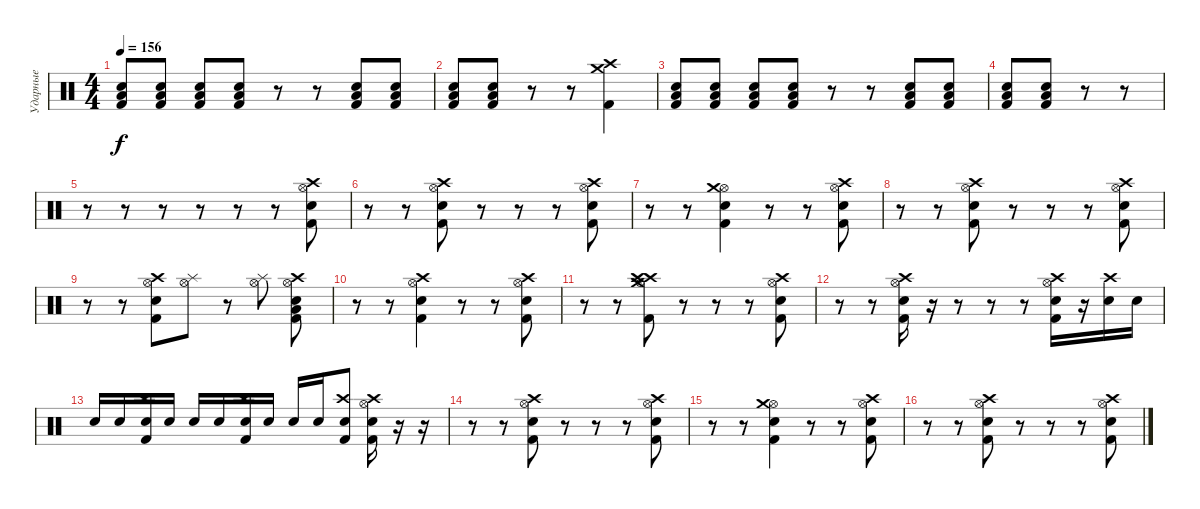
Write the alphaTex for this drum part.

\track ("Ударные" "Ударные") {instrument percussion}
\staff {score}
\articulation defaults
\ts (4 4)
\tempo 156
\clef neutral
\ks c
("Kick (hit) 2" "Electric Snare (hit)" "Low Tom (hit)").8{dy f} ("Kick (hit) 2" "Electric Snare (hit)" "Low Tom (hit)").8 ("Kick (hit) 2" "Electric Snare (hit)" "Low Tom (hit)").8 ("Kick (hit) 2" "Electric Snare (hit)" "Low Tom (hit)").8 r.8 r.8 ("Kick (hit) 2" "Electric Snare (hit)" "Low Tom (hit)").8 ("Kick (hit) 2" "Electric Snare (hit)" "Low Tom (hit)").8 |
("Kick (hit) 2" "Electric Snare (hit)" "Low Tom (hit)").8 ("Kick (hit) 2" "Electric Snare (hit)" "Low Tom (hit)").8 r.8 r.8 ("Kick (hit) 2" "Crash medium (hit)" "Crash high (hit)").4 |
("Kick (hit) 2" "Electric Snare (hit)" "Low Tom (hit)").8 ("Kick (hit) 2" "Electric Snare (hit)" "Low Tom (hit)").8 ("Kick (hit) 2" "Electric Snare (hit)" "Low Tom (hit)").8 ("Kick (hit) 2" "Electric Snare (hit)" "Low Tom (hit)").8 r.8 r.8 ("Kick (hit) 2" "Electric Snare (hit)" "Low Tom (hit)").8 ("Kick (hit) 2" "Electric Snare (hit)" "Low Tom (hit)").8 |
("Kick (hit) 2" "Electric Snare (hit)" "Low Tom (hit)").8 ("Kick (hit) 2" "Electric Snare (hit)" "Low Tom (hit)").8 r.8 r.8 |
r.8 r.8 r.8 r.8 r.8 r.8 ("Kick (hit) 2" "Electric Snare (hit)" "Hi-Hat (open)" "Crash high (hit)").8 |
r.8 r.8 ("Kick (hit) 2" "Electric Snare (hit)" "Hi-Hat (open)" "Crash high (hit)").8 r.8 r.8 r.8 ("Kick (hit) 2" "Electric Snare (hit)" "Hi-Hat (open)" "Crash high (hit)").8 |
r.8 r.8 ("Kick (hit) 2" "Electric Snare (hit)" "Hi-Hat (open)" "Crash medium (hit)").4 r.8 r.8 ("Kick (hit) 2" "Electric Snare (hit)" "Hi-Hat (open)" "Crash high (hit)").8 |
r.8 r.8 ("Kick (hit) 2" "Electric Snare (hit)" "Hi-Hat (open)" "Crash high (hit)").8 r.8 r.8 r.8 ("Kick (hit) 2" "Electric Snare (hit)" "Hi-Hat (open)" "Crash high (hit)").8 |
r.8 r.8 ("Kick (hit) 2" "Electric Snare (hit)" "Hi-Hat (open)" "Crash high (hit)").8 ("Splash (hit)" "Hi-Hat (open)").8 r.8 ("Splash (hit)" "Hi-Hat (open)").8 ("Kick (hit) 2" "Electric Snare (hit)" "Low Tom (hit)" "Hi-Hat (open)" "Crash high (hit)").8 |
r.8 r.8 ("Kick (hit) 2" "Electric Snare (hit)" "Hi-Hat (open)" "Crash high (hit)").4 r.8 r.8 ("Kick (hit) 2" "Electric Snare (hit)" "Hi-Hat (open)" "Crash high (hit)").8 |
r.8 r.8 ("Kick (hit) 2" "Crash medium (hit)" "Crash high (hit)" "Hi-Hat (open)" "Crash high (hit)").8 r.8 r.8 r.8 ("Kick (hit) 2" "Electric Snare (hit)" "Hi-Hat (open)" "Crash high (hit)").8 |
r.8 r.8 ("Kick (hit) 2" "Electric Snare (hit)" "Hi-Hat (open)" "Crash high (hit)").16 r.16 r.8 r.8 r.8 ("Kick (hit) 2" "Electric Snare (hit)" "Hi-Hat (open)" "Crash high (hit)").16 r.16 ("Snare (hit) 2" "Crash high (hit)").16 "Electric Snare (hit)".16 |
"Snare (hit) 2".16 "Electric Snare (hit)".16 ("Kick (hit) 2" "Snare (hit) 2" "Crash high (hit)").16 "Electric Snare (hit)".16 "Snare (hit) 2".16 "Electric Snare (hit)".16 ("Kick (hit) 2" "Snare (hit) 2" "Crash high (hit)").16 "Electric Snare (hit)".16 "Snare (hit) 2".16 "Electric Snare (hit)".16 ("Kick (hit) 2" "Snare (hit) 2" "Crash high (hit)").8 ("Kick (hit) 2" "Electric Snare (hit)" "Hi-Hat (open)" "Crash high (hit)").16 r.16 r.16 |
r.8 r.8 ("Kick (hit) 2" "Electric Snare (hit)" "Hi-Hat (open)" "Crash high (hit)").8 r.8 r.8 r.8 ("Kick (hit) 2" "Electric Snare (hit)" "Hi-Hat (open)" "Crash high (hit)").8 |
r.8 r.8 ("Kick (hit) 2" "Electric Snare (hit)" "Hi-Hat (open)" "Crash medium (hit)").4 r.8 r.8 ("Kick (hit) 2" "Electric Snare (hit)" "Hi-Hat (open)" "Crash high (hit)").8 |
r.8 r.8 ("Kick (hit) 2" "Electric Snare (hit)" "Hi-Hat (open)" "Crash high (hit)").8 r.8 r.8 r.8 ("Kick (hit) 2" "Electric Snare (hit)" "Hi-Hat (open)" "Crash high (hit)").8
